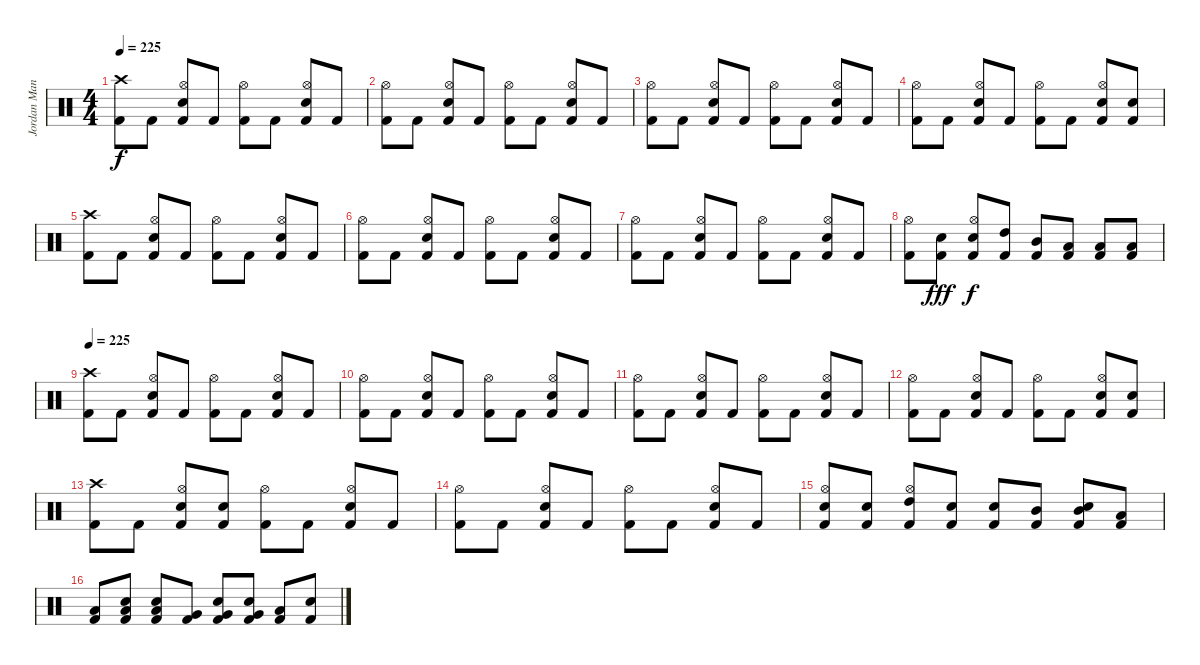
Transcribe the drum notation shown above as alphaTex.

\track ("Jordan Mancino" "Jordan Man") {instrument percussion}
\staff {score}
\articulation defaults
\ts (4 4)
\tempo 225
\clef neutral
\ks c
("Crash high (hit)" "Kick (hit) 2").8{dy f} "Kick (hit) 2".8 ("Hi-Hat (open)" "Electric Snare (hit)" "Kick (hit) 2").8 "Kick (hit) 2".8 ("Hi-Hat (open)" "Kick (hit) 2").8 "Kick (hit) 2".8 ("Hi-Hat (open)" "Electric Snare (hit)" "Kick (hit) 2").8 "Kick (hit) 2".8 |
("Hi-Hat (open)" "Kick (hit) 2").8 "Kick (hit) 2".8 ("Hi-Hat (open)" "Electric Snare (hit)" "Kick (hit) 2").8 "Kick (hit) 2".8 ("Hi-Hat (open)" "Kick (hit) 2").8 "Kick (hit) 2".8 ("Hi-Hat (open)" "Electric Snare (hit)" "Kick (hit) 2").8 "Kick (hit) 2".8 |
("Hi-Hat (open)" "Kick (hit) 2").8 "Kick (hit) 2".8 ("Hi-Hat (open)" "Electric Snare (hit)" "Kick (hit) 2").8 "Kick (hit) 2".8 ("Hi-Hat (open)" "Kick (hit) 2").8 "Kick (hit) 2".8 ("Hi-Hat (open)" "Electric Snare (hit)" "Kick (hit) 2").8 "Kick (hit) 2".8 |
("Hi-Hat (open)" "Kick (hit) 2").8 "Kick (hit) 2".8 ("Hi-Hat (open)" "Electric Snare (hit)" "Kick (hit) 2").8 "Kick (hit) 2".8 ("Hi-Hat (open)" "Kick (hit) 2").8 "Kick (hit) 2".8 ("Hi-Hat (open)" "Electric Snare (hit)" "Kick (hit) 2").8 ("Electric Snare (hit)" "Kick (hit) 2").8 |
("Crash high (hit)" "Kick (hit) 2").8 "Kick (hit) 2".8 ("Hi-Hat (open)" "Electric Snare (hit)" "Kick (hit) 2").8 "Kick (hit) 2".8 ("Hi-Hat (open)" "Kick (hit) 2").8 "Kick (hit) 2".8 ("Hi-Hat (open)" "Electric Snare (hit)" "Kick (hit) 2").8 "Kick (hit) 2".8 |
("Hi-Hat (open)" "Kick (hit) 2").8 "Kick (hit) 2".8 ("Hi-Hat (open)" "Electric Snare (hit)" "Kick (hit) 2").8 "Kick (hit) 2".8 ("Hi-Hat (open)" "Kick (hit) 2").8 "Kick (hit) 2".8 ("Hi-Hat (open)" "Electric Snare (hit)" "Kick (hit) 2").8 "Kick (hit) 2".8 |
("Hi-Hat (open)" "Kick (hit) 2").8 "Kick (hit) 2".8 ("Hi-Hat (open)" "Electric Snare (hit)" "Kick (hit) 2").8 "Kick (hit) 2".8 ("Hi-Hat (open)" "Kick (hit) 2").8 "Kick (hit) 2".8 ("Hi-Hat (open)" "Electric Snare (hit)" "Kick (hit) 2").8 "Kick (hit) 2".8 |
("Hi-Hat (open)" "Kick (hit) 2").8 ("Electric Snare (hit)" "Kick (hit) 2").8{dy fff} ("Hi-Hat (open)" "Electric Snare (hit)" "Kick (hit) 2").8{dy f} ("High Tom (hit)" "Kick (hit) 2").8 ("Mid Tom (hit)" "Kick (hit) 2").8 ("Low Tom (hit)" "Kick (hit) 2").8 ("Low Tom (hit)" "Kick (hit) 2").8 ("Low Floor Tom (hit)" "Kick (hit) 2").8 |
\tempo 225
("Crash high (hit)" "Kick (hit) 2").8 "Kick (hit) 2".8 ("Hi-Hat (open)" "Electric Snare (hit)" "Kick (hit) 2").8 "Kick (hit) 2".8 ("Hi-Hat (open)" "Kick (hit) 2").8 "Kick (hit) 2".8 ("Hi-Hat (open)" "Electric Snare (hit)" "Kick (hit) 2").8 "Kick (hit) 2".8 |
("Hi-Hat (open)" "Kick (hit) 2").8 "Kick (hit) 2".8 ("Hi-Hat (open)" "Electric Snare (hit)" "Kick (hit) 2").8 "Kick (hit) 2".8 ("Hi-Hat (open)" "Kick (hit) 2").8 "Kick (hit) 2".8 ("Hi-Hat (open)" "Electric Snare (hit)" "Kick (hit) 2").8 "Kick (hit) 2".8 |
("Hi-Hat (open)" "Kick (hit) 2").8 "Kick (hit) 2".8 ("Hi-Hat (open)" "Electric Snare (hit)" "Kick (hit) 2").8 "Kick (hit) 2".8 ("Hi-Hat (open)" "Kick (hit) 2").8 "Kick (hit) 2".8 ("Hi-Hat (open)" "Electric Snare (hit)" "Kick (hit) 2").8 "Kick (hit) 2".8 |
("Hi-Hat (open)" "Kick (hit) 2").8 "Kick (hit) 2".8 ("Hi-Hat (open)" "Electric Snare (hit)" "Kick (hit) 2").8 "Kick (hit) 2".8 ("Hi-Hat (open)" "Kick (hit) 2").8 "Kick (hit) 2".8 ("Hi-Hat (open)" "Electric Snare (hit)" "Kick (hit) 2").8 ("Electric Snare (hit)" "Kick (hit) 2").8 |
("Crash high (hit)" "Kick (hit) 2").8 "Kick (hit) 2".8 ("Hi-Hat (open)" "Electric Snare (hit)" "Kick (hit) 2").8 ("Electric Snare (hit)" "Kick (hit) 2").8 ("Hi-Hat (open)" "Kick (hit) 2").8 "Kick (hit) 2".8 ("Hi-Hat (open)" "Electric Snare (hit)" "Kick (hit) 2").8 "Kick (hit) 2".8 |
("Hi-Hat (open)" "Kick (hit) 2").8 "Kick (hit) 2".8 ("Hi-Hat (open)" "Electric Snare (hit)" "Kick (hit) 2").8 "Kick (hit) 2".8 ("Hi-Hat (open)" "Kick (hit) 2").8 "Kick (hit) 2".8 ("Hi-Hat (open)" "Electric Snare (hit)" "Kick (hit) 2").8 "Kick (hit) 2".8 |
("Hi-Hat (open)" "Electric Snare (hit)" "Kick (hit) 2").8 ("Electric Snare (hit)" "Kick (hit) 2").8 ("Hi-Hat (open)" "High Tom (hit)" "Kick (hit) 2").8 ("Electric Snare (hit)" "Kick (hit) 2").8 ("Electric Snare (hit)" "Kick (hit) 2").8 ("Mid Tom (hit)" "Kick (hit) 2").8 ("Electric Snare (hit)" "Mid Tom (hit)" "Kick (hit) 2").8 ("Low Tom (hit)" "Kick (hit) 2").8 |
("Low Tom (hit)" "Kick (hit) 2").8 ("Electric Snare (hit)" "Low Tom (hit)" "Kick (hit) 2").8 ("Electric Snare (hit)" "Low Tom (hit)" "Kick (hit) 2").8 ("Very Low Tom (hit)" "Kick (hit) 2").8 ("Electric Snare (hit)" "Very Low Tom (hit)" "Kick (hit) 2").8 ("Electric Snare (hit)" "Very Low Tom (hit)" "Kick (hit) 2").8 ("Low Floor Tom (hit)" "Kick (hit) 2").8 ("Electric Snare (hit)" "Kick (hit) 2").8
